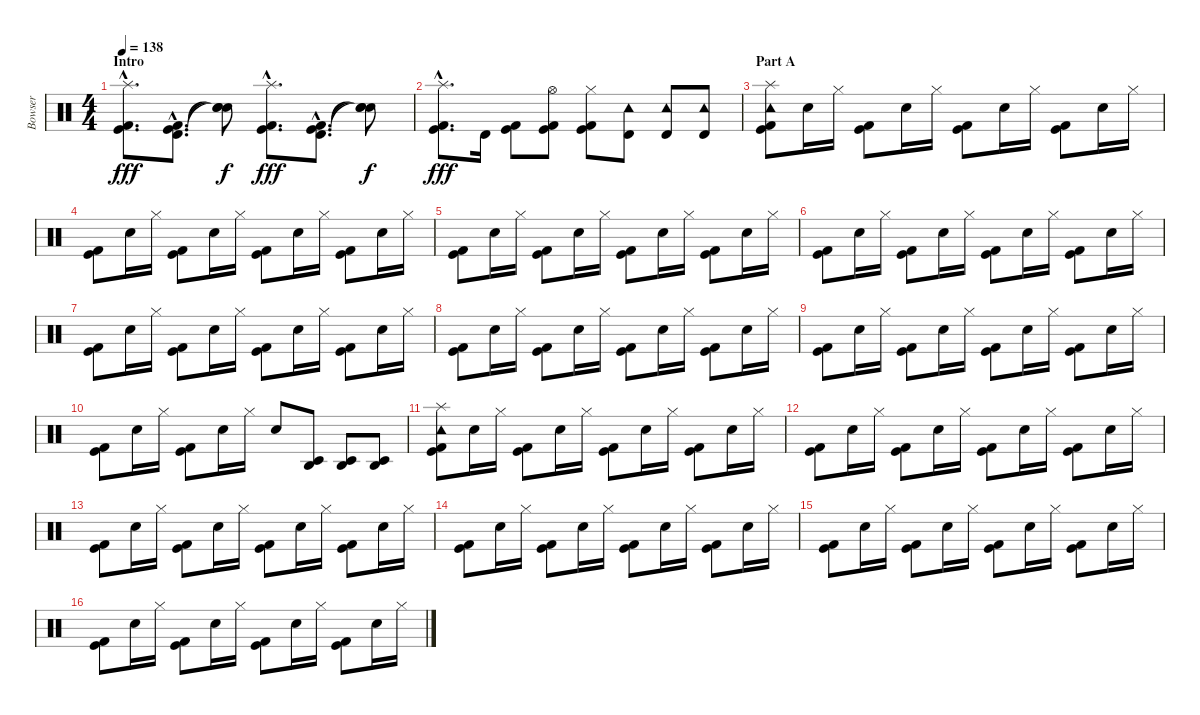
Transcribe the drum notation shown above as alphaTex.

\track ("Bowser" "Bowser") {instrument percussion}
\staff {score}
\articulation defaults
\ts (4 4)
\section ("" "Intro")
\tempo 138
\clef neutral
\ks c
("Kick (hit)"{hac} "Kick (hit) 2"{hac} "Splash (hit)"{hac}).8{d dy fff} ("Kick (hit)"{hac} "Kick (hit) 2"{hac} "Timbale high (hit)"{hac}).8{d} ("Snare (hit)"{t} "Snare (hit)"{t} "Snare (hit)"{t}).8{dy f} ("Kick (hit)"{hac} "Kick (hit) 2"{hac} "Splash (hit)"{hac}).8{d dy fff} ("Kick (hit)"{hac} "Kick (hit) 2"{hac} "Timbale high (hit)"{hac}).8{d} ("Snare (hit)"{t} "Snare (hit)"{t} "Snare (hit)"{t}).8{dy f} |
("Kick (hit)"{hac} "Kick (hit) 2"{hac} "Splash (hit)"{hac}).8{d dy fff} "Timbale high (hit)".16 ("Kick (hit)" "Kick (hit) 2").8 ("Kick (hit)" "Kick (hit) 2" "Hi-Hat (open)").8 ("Kick (hit)" "Kick (hit) 2" "Hi-Hat (closed)").8 ("Tambourine (hit)" "Timbale high (hit)").8 ("Tambourine (hit)" "Timbale high (hit)").8 ("Tambourine (hit)" "Timbale high (hit)").8 |
\section ("" "Part A")
("Kick (hit)" "Kick (hit) 2" "Tambourine (hit)" "Splash (hit)").8 "Electric Snare (hit)".16 "Hi-Hat (closed)".16 ("Kick (hit)" "Kick (hit) 2").8 "Electric Snare (hit)".16 "Hi-Hat (closed)".16 ("Kick (hit)" "Kick (hit) 2").8 "Electric Snare (hit)".16 "Hi-Hat (closed)".16 ("Kick (hit)" "Kick (hit) 2").8 "Electric Snare (hit)".16 "Hi-Hat (closed)".16 |
("Kick (hit)" "Kick (hit) 2").8 "Electric Snare (hit)".16 "Hi-Hat (closed)".16 ("Kick (hit)" "Kick (hit) 2").8 "Electric Snare (hit)".16 "Hi-Hat (closed)".16 ("Kick (hit)" "Kick (hit) 2").8 "Electric Snare (hit)".16 "Hi-Hat (closed)".16 ("Kick (hit)" "Kick (hit) 2").8 "Electric Snare (hit)".16 "Hi-Hat (closed)".16 |
("Kick (hit)" "Kick (hit) 2").8 "Electric Snare (hit)".16 "Hi-Hat (closed)".16 ("Kick (hit)" "Kick (hit) 2").8 "Electric Snare (hit)".16 "Hi-Hat (closed)".16 ("Kick (hit)" "Kick (hit) 2").8 "Electric Snare (hit)".16 "Hi-Hat (closed)".16 ("Kick (hit)" "Kick (hit) 2").8 "Electric Snare (hit)".16 "Hi-Hat (closed)".16 |
("Kick (hit)" "Kick (hit) 2").8 "Electric Snare (hit)".16 "Hi-Hat (closed)".16 ("Kick (hit)" "Kick (hit) 2").8 "Electric Snare (hit)".16 "Hi-Hat (closed)".16 ("Kick (hit)" "Kick (hit) 2").8 "Electric Snare (hit)".16 "Hi-Hat (closed)".16 ("Kick (hit)" "Kick (hit) 2").8 "Electric Snare (hit)".16 "Hi-Hat (closed)".16 |
("Kick (hit)" "Kick (hit) 2").8 "Electric Snare (hit)".16 "Hi-Hat (closed)".16 ("Kick (hit)" "Kick (hit) 2").8 "Electric Snare (hit)".16 "Hi-Hat (closed)".16 ("Kick (hit)" "Kick (hit) 2").8 "Electric Snare (hit)".16 "Hi-Hat (closed)".16 ("Kick (hit)" "Kick (hit) 2").8 "Electric Snare (hit)".16 "Hi-Hat (closed)".16 |
("Kick (hit)" "Kick (hit) 2").8 "Electric Snare (hit)".16 "Hi-Hat (closed)".16 ("Kick (hit)" "Kick (hit) 2").8 "Electric Snare (hit)".16 "Hi-Hat (closed)".16 ("Kick (hit)" "Kick (hit) 2").8 "Electric Snare (hit)".16 "Hi-Hat (closed)".16 ("Kick (hit)" "Kick (hit) 2").8 "Electric Snare (hit)".16 "Hi-Hat (closed)".16 |
("Kick (hit)" "Kick (hit) 2").8 "Electric Snare (hit)".16 "Hi-Hat (closed)".16 ("Kick (hit)" "Kick (hit) 2").8 "Electric Snare (hit)".16 "Hi-Hat (closed)".16 ("Kick (hit)" "Kick (hit) 2").8 "Electric Snare (hit)".16 "Hi-Hat (closed)".16 ("Kick (hit)" "Kick (hit) 2").8 "Electric Snare (hit)".16 "Hi-Hat (closed)".16 |
("Kick (hit)" "Kick (hit) 2").8 "Electric Snare (hit)".16 "Hi-Hat (closed)".16 ("Kick (hit)" "Kick (hit) 2").8 "Electric Snare (hit)".16 "Hi-Hat (closed)".16 "Electric Snare (hit)".8 ("Timbale low (hit)" "Agogo high (hit)").8 ("Timbale low (hit)" "Agogo high (hit)").8 ("Timbale low (hit)" "Agogo high (hit)").8 |
("Kick (hit)" "Kick (hit) 2" "Tambourine (hit)" "Splash (hit)").8 "Electric Snare (hit)".16 "Hi-Hat (closed)".16 ("Kick (hit)" "Kick (hit) 2").8 "Electric Snare (hit)".16 "Hi-Hat (closed)".16 ("Kick (hit)" "Kick (hit) 2").8 "Electric Snare (hit)".16 "Hi-Hat (closed)".16 ("Kick (hit)" "Kick (hit) 2").8 "Electric Snare (hit)".16 "Hi-Hat (closed)".16 |
("Kick (hit)" "Kick (hit) 2").8 "Electric Snare (hit)".16 "Hi-Hat (closed)".16 ("Kick (hit)" "Kick (hit) 2").8 "Electric Snare (hit)".16 "Hi-Hat (closed)".16 ("Kick (hit)" "Kick (hit) 2").8 "Electric Snare (hit)".16 "Hi-Hat (closed)".16 ("Kick (hit)" "Kick (hit) 2").8 "Electric Snare (hit)".16 "Hi-Hat (closed)".16 |
("Kick (hit)" "Kick (hit) 2").8 "Electric Snare (hit)".16 "Hi-Hat (closed)".16 ("Kick (hit)" "Kick (hit) 2").8 "Electric Snare (hit)".16 "Hi-Hat (closed)".16 ("Kick (hit)" "Kick (hit) 2").8 "Electric Snare (hit)".16 "Hi-Hat (closed)".16 ("Kick (hit)" "Kick (hit) 2").8 "Electric Snare (hit)".16 "Hi-Hat (closed)".16 |
("Kick (hit)" "Kick (hit) 2").8 "Electric Snare (hit)".16 "Hi-Hat (closed)".16 ("Kick (hit)" "Kick (hit) 2").8 "Electric Snare (hit)".16 "Hi-Hat (closed)".16 ("Kick (hit)" "Kick (hit) 2").8 "Electric Snare (hit)".16 "Hi-Hat (closed)".16 ("Kick (hit)" "Kick (hit) 2").8 "Electric Snare (hit)".16 "Hi-Hat (closed)".16 |
("Kick (hit)" "Kick (hit) 2").8 "Electric Snare (hit)".16 "Hi-Hat (closed)".16 ("Kick (hit)" "Kick (hit) 2").8 "Electric Snare (hit)".16 "Hi-Hat (closed)".16 ("Kick (hit)" "Kick (hit) 2").8 "Electric Snare (hit)".16 "Hi-Hat (closed)".16 ("Kick (hit)" "Kick (hit) 2").8 "Electric Snare (hit)".16 "Hi-Hat (closed)".16 |
("Kick (hit)" "Kick (hit) 2").8 "Electric Snare (hit)".16 "Hi-Hat (closed)".16 ("Kick (hit)" "Kick (hit) 2").8 "Electric Snare (hit)".16 "Hi-Hat (closed)".16 ("Kick (hit)" "Kick (hit) 2").8 "Electric Snare (hit)".16 "Hi-Hat (closed)".16 ("Kick (hit)" "Kick (hit) 2").8 "Electric Snare (hit)".16 "Hi-Hat (closed)".16
